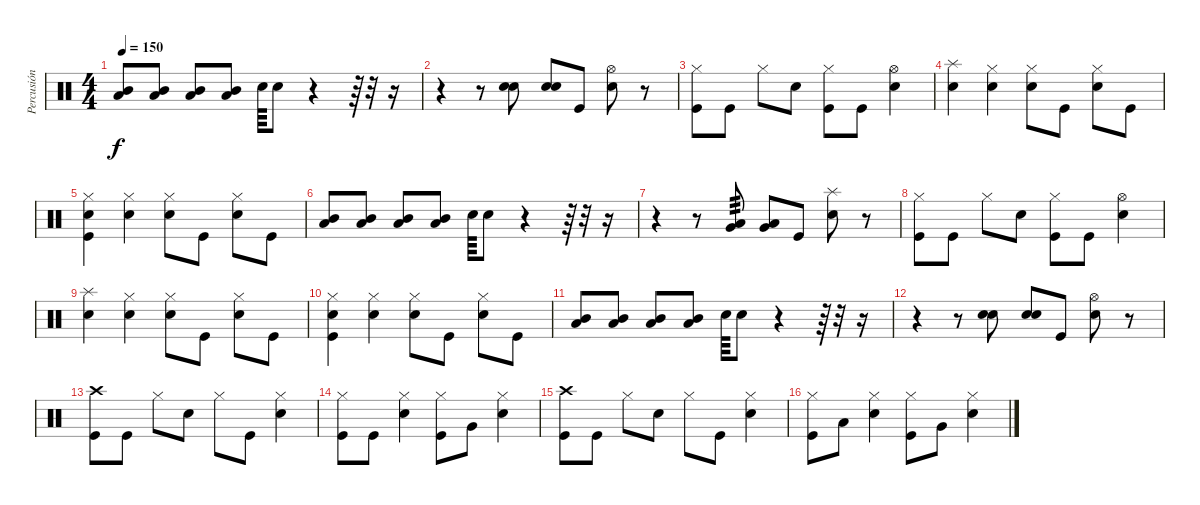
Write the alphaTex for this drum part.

\track ("Percusión" "Percusión") {instrument percussion}
\staff {score}
\articulation defaults
\ts (4 4)
\tempo 150
\clef neutral
\ks c
("Mid Tom (hit)" "Low Floor Tom (hit)").8{dy f} ("Mid Tom (hit)" "Low Floor Tom (hit)").8 ("Mid Tom (hit)" "Low Floor Tom (hit)").8 ("Mid Tom (hit)" "Low Floor Tom (hit)").8 "Snare (hit) 2".64 "Snare (hit) 2".8 r.4 r.64 r.32 r.16 |
r.4 r.8 ("Snare (hit) 2" "Snare (hit) 2").8 ("Snare (hit) 2" "Snare (hit) 2").8 "Kick (hit)".8 ("Hi-Hat (open)" "Snare (hit) 2").8 r.8 |
("Hi-Hat (closed)" "Kick (hit)").8 "Kick (hit)".8 "Hi-Hat (closed)".8 "Snare (hit) 2".8 ("Hi-Hat (closed)" "Kick (hit)").8 "Kick (hit)".8 ("Hi-Hat (open)" "Snare (hit) 2").4 |
("Splash (hit)" "Snare (hit) 2").4 ("Hi-Hat (closed)" "Snare (hit) 2").4 ("Hi-Hat (closed)" "Snare (hit) 2").8 "Kick (hit)".8 ("Hi-Hat (closed)" "Snare (hit) 2").8 "Kick (hit)".8 |
("Hi-Hat (closed)" "Snare (hit) 2" "Kick (hit)").4 ("Hi-Hat (closed)" "Snare (hit) 2").4 ("Hi-Hat (closed)" "Snare (hit) 2").8 "Kick (hit)".8 ("Hi-Hat (closed)" "Snare (hit) 2").8 "Kick (hit)".8 |
("Mid Tom (hit)" "Low Floor Tom (hit)").8 ("Mid Tom (hit)" "Low Floor Tom (hit)").8 ("Mid Tom (hit)" "Low Floor Tom (hit)").8 ("Mid Tom (hit)" "Low Floor Tom (hit)").8 "Snare (hit) 2".64 "Snare (hit) 2".8 r.4 r.64 r.32 r.16 |
r.4 r.8 ("Very Low Tom (hit)" "Low Tom (hit)").8{tp 3} ("Very Low Tom (hit)" "Low Tom (hit)").8 "Kick (hit)".8 ("Splash (hit)" "Snare (hit) 2").8 r.8 |
("Hi-Hat (closed)" "Kick (hit)").8 "Kick (hit)".8 "Hi-Hat (closed)".8 "Snare (hit) 2".8 ("Hi-Hat (closed)" "Kick (hit)").8 "Kick (hit)".8 ("Hi-Hat (open)" "Snare (hit) 2").4 |
("Splash (hit)" "Snare (hit) 2").4 ("Hi-Hat (closed)" "Snare (hit) 2").4 ("Hi-Hat (closed)" "Snare (hit) 2").8 "Kick (hit)".8 ("Hi-Hat (closed)" "Snare (hit) 2").8 "Kick (hit)".8 |
("Hi-Hat (closed)" "Snare (hit) 2" "Kick (hit)").4 ("Hi-Hat (closed)" "Snare (hit) 2").4 ("Hi-Hat (closed)" "Snare (hit) 2").8 "Kick (hit)".8 ("Hi-Hat (closed)" "Snare (hit) 2").8 "Kick (hit)".8 |
("Mid Tom (hit)" "Low Floor Tom (hit)").8 ("Mid Tom (hit)" "Low Floor Tom (hit)").8 ("Mid Tom (hit)" "Low Floor Tom (hit)").8 ("Mid Tom (hit)" "Low Floor Tom (hit)").8 "Snare (hit) 2".64 "Snare (hit) 2".8 r.4 r.64 r.32 r.16 |
r.4 r.8 ("Snare (hit) 2" "Snare (hit) 2").8 ("Snare (hit) 2" "Snare (hit) 2").8 "Kick (hit)".8 ("Hi-Hat (open)" "Snare (hit) 2").8 r.8 |
("Crash high (hit)" "Kick (hit)").8 "Kick (hit)".8 "Hi-Hat (closed)".8 "Snare (hit) 2".8 "Hi-Hat (closed)".8 "Kick (hit)".8 ("Hi-Hat (closed)" "Snare (hit) 2").4 |
("Hi-Hat (closed)" "Kick (hit)").8 "Kick (hit)".8 ("Hi-Hat (closed)" "Snare (hit) 2").4 ("Hi-Hat (closed)" "Kick (hit)").8 "Very Low Tom (hit)".8 ("Hi-Hat (closed)" "Snare (hit) 2").4 |
("Crash high (hit)" "Kick (hit)").8 "Kick (hit)".8 "Hi-Hat (closed)".8 "Snare (hit) 2".8 "Hi-Hat (closed)".8 "Kick (hit)".8 ("Hi-Hat (closed)" "Snare (hit) 2").4 |
("Hi-Hat (closed)" "Kick (hit)").8 "Low Tom (hit)".8 ("Hi-Hat (closed)" "Snare (hit) 2").4 ("Hi-Hat (closed)" "Kick (hit)").8 "Very Low Tom (hit)".8 ("Hi-Hat (closed)" "Snare (hit) 2").4
